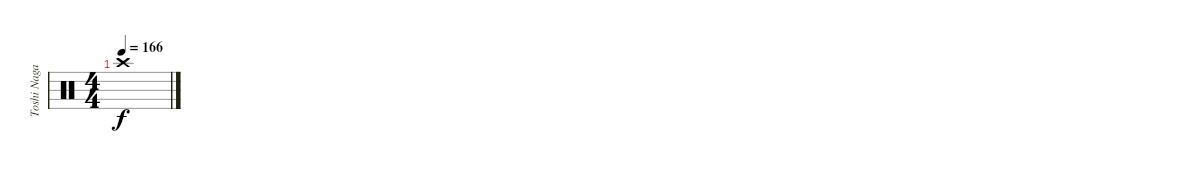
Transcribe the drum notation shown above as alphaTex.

\track ("Toshi Nagai" "Toshi Naga") {instrument percussion}
\staff {score}
\articulation defaults
\ts (4 4)
\tempo 166
\clef neutral
\ks c "Crash high (hit)".1{dy f}
